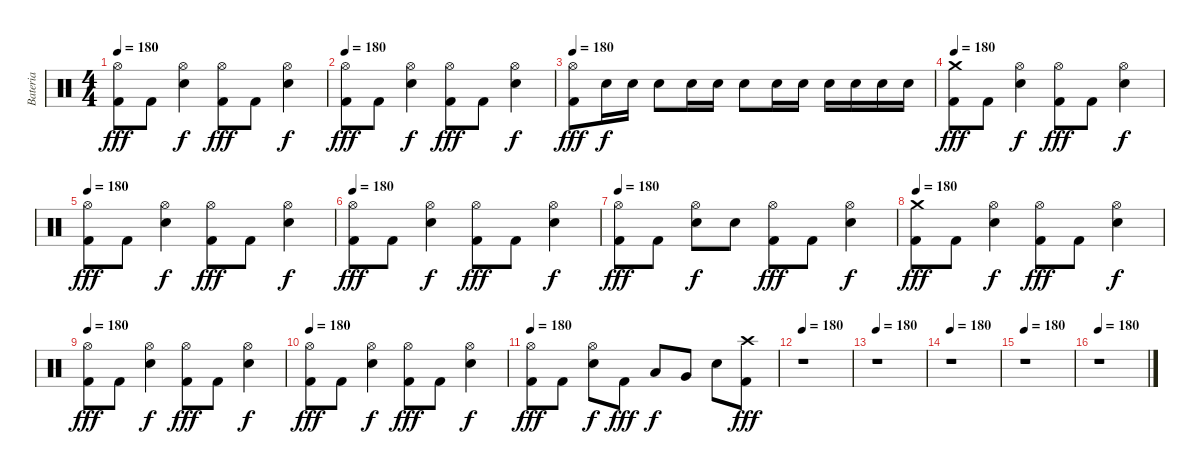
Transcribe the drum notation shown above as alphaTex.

\track ("Bateria" "Bateria") {instrument percussion}
\staff {score}
\articulation defaults
\ts (4 4)
\tempo 180
\clef neutral
\ks c
("Hi-Hat (open)" "Kick (hit) 2").8{dy fff} "Kick (hit) 2".8 ("Hi-Hat (open)" "Electric Snare (hit)").4{dy f} ("Hi-Hat (open)" "Kick (hit) 2").8{dy fff} "Kick (hit) 2".8 ("Hi-Hat (open)" "Electric Snare (hit)").4{dy f} |
\tempo 180
("Hi-Hat (open)" "Kick (hit) 2").8{dy fff} "Kick (hit) 2".8 ("Hi-Hat (open)" "Electric Snare (hit)").4{dy f} ("Hi-Hat (open)" "Kick (hit) 2").8{dy fff} "Kick (hit) 2".8 ("Hi-Hat (open)" "Electric Snare (hit)").4{dy f} |
\tempo 180
("Hi-Hat (open)" "Kick (hit) 2").8{dy fff} "Electric Snare (hit)".16{dy f} "Electric Snare (hit)".16 "Electric Snare (hit)".8 "Electric Snare (hit)".16 "Electric Snare (hit)".16 "Electric Snare (hit)".8 "Electric Snare (hit)".16 "Electric Snare (hit)".16 "Electric Snare (hit)".16 "Electric Snare (hit)".16 "Electric Snare (hit)".16 "Electric Snare (hit)".16 |
\tempo 180
("Crash medium (hit)" "Kick (hit) 2").8{dy fff} "Kick (hit) 2".8 ("Hi-Hat (open)" "Electric Snare (hit)").4{dy f} ("Hi-Hat (open)" "Kick (hit) 2").8{dy fff} "Kick (hit) 2".8 ("Hi-Hat (open)" "Electric Snare (hit)").4{dy f} |
\tempo 180
("Hi-Hat (open)" "Kick (hit) 2").8{dy fff} "Kick (hit) 2".8 ("Hi-Hat (open)" "Electric Snare (hit)").4{dy f} ("Hi-Hat (open)" "Kick (hit) 2").8{dy fff} "Kick (hit) 2".8 ("Hi-Hat (open)" "Electric Snare (hit)").4{dy f} |
\tempo 180
("Hi-Hat (open)" "Kick (hit) 2").8{dy fff} "Kick (hit) 2".8 ("Hi-Hat (open)" "Electric Snare (hit)").4{dy f} ("Hi-Hat (open)" "Kick (hit) 2").8{dy fff} "Kick (hit) 2".8 ("Hi-Hat (open)" "Electric Snare (hit)").4{dy f} |
\tempo 180
("Hi-Hat (open)" "Kick (hit) 2").8{dy fff} "Kick (hit) 2".8 ("Hi-Hat (open)" "Electric Snare (hit)").8{dy f} "Electric Snare (hit)".8 ("Hi-Hat (open)" "Kick (hit) 2").8{dy fff} "Kick (hit) 2".8 ("Hi-Hat (open)" "Electric Snare (hit)").4{dy f} |
\tempo 180
("Crash medium (hit)" "Kick (hit) 2").8{dy fff} "Kick (hit) 2".8 ("Hi-Hat (open)" "Electric Snare (hit)").4{dy f} ("Hi-Hat (open)" "Kick (hit) 2").8{dy fff} "Kick (hit) 2".8 ("Hi-Hat (open)" "Electric Snare (hit)").4{dy f} |
\tempo 180
("Hi-Hat (open)" "Kick (hit) 2").8{dy fff} "Kick (hit) 2".8 ("Hi-Hat (open)" "Electric Snare (hit)").4{dy f} ("Hi-Hat (open)" "Kick (hit) 2").8{dy fff} "Kick (hit) 2".8 ("Hi-Hat (open)" "Electric Snare (hit)").4{dy f} |
\tempo 180
("Hi-Hat (open)" "Kick (hit) 2").8{dy fff} "Kick (hit) 2".8 ("Hi-Hat (open)" "Electric Snare (hit)").4{dy f} ("Hi-Hat (open)" "Kick (hit) 2").8{dy fff} "Kick (hit) 2".8 ("Hi-Hat (open)" "Electric Snare (hit)").4{dy f} |
\tempo 180
("Hi-Hat (open)" "Kick (hit) 2").8{dy fff} "Kick (hit) 2".8 ("Hi-Hat (open)" "Electric Snare (hit)").8{dy f} "Kick (hit) 2".8{dy fff} "Low Tom (hit)".8{dy f} "Very Low Tom (hit)".8 "Electric Snare (hit)".8 ("Crash high (hit)" "Kick (hit) 2").8{dy fff} |
\tempo 180
r.1 |
\tempo 180
r.1 |
\tempo 180
r.1 |
\tempo 180
r.1 |
\tempo 180
r.1
